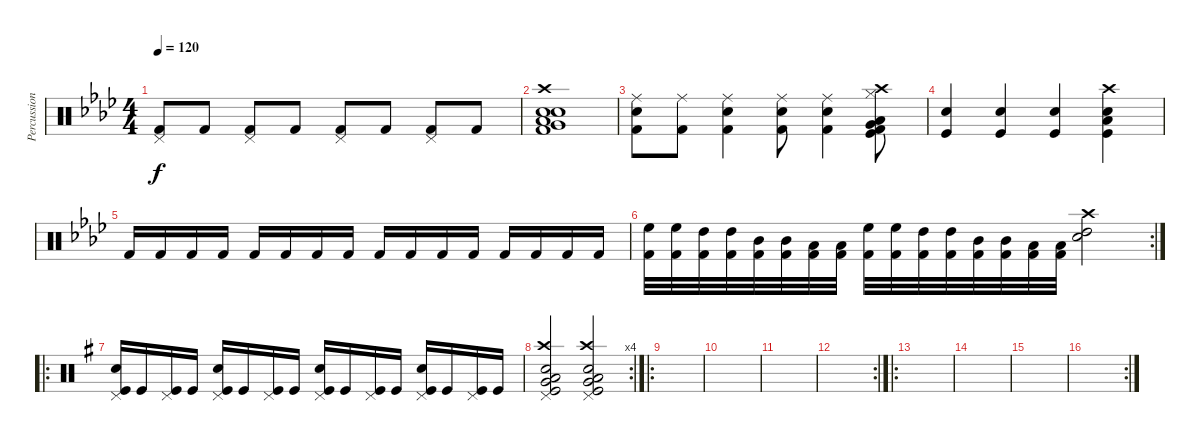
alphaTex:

\track ("Percussion" "Percussion") {instrument percussion}
\staff {score}
\articulation defaults
\ts (4 4)
\tempo 120
\clef neutral
\ks fminor
("Pedal Hi-Hat (hit)" "Kick (hit) 2").8{dy f} "Kick (hit) 2".8 ("Pedal Hi-Hat (hit)" "Kick (hit) 2").8 "Kick (hit) 2".8 ("Pedal Hi-Hat (hit)" "Kick (hit) 2").8 "Kick (hit) 2".8 ("Pedal Hi-Hat (hit)" "Kick (hit) 2").8 "Kick (hit) 2".8 |
("Electric Snare (hit)" "Electric Snare (hit)" "Crash high (hit)" "Kick (hit) 2" "Low Floor Tom (hit)" "Very Low Tom (hit)").1 |
("Kick (hit) 2" "Snare (hit) 2" "Ride (middle)").8 ("Kick (hit) 2" "Ride (middle)").8 ("Kick (hit) 2" "Snare (hit) 2" "Ride (middle)").4 ("Kick (hit) 2" "Snare (hit) 2" "Ride (middle)").8 ("Kick (hit) 2" "Snare (hit) 2" "Ride (middle)").4 ("Very Low Tom (hit)" "Crash high (hit)" "Kick (hit)" "Kick (hit) 2" "Low Floor Tom (hit)" "Hi-Hat (closed)").8 |
("Snare (hit) 2" "Kick (hit)").4 ("Snare (hit) 2" "Kick (hit)").4 ("Snare (hit) 2" "Kick (hit)").4 ("Crash high (hit)" "Low Floor Tom (hit)" "Snare (hit) 2" "Kick (hit)").4 |
"Kick (hit) 2".16 "Kick (hit) 2".16 "Kick (hit) 2".16 "Kick (hit) 2".16 "Kick (hit) 2".16 "Kick (hit) 2".16 "Kick (hit) 2".16 "Kick (hit) 2".16 "Kick (hit) 2".16 "Kick (hit) 2".16 "Kick (hit) 2".16 "Kick (hit) 2".16 "Kick (hit) 2".16 "Kick (hit) 2".16 "Kick (hit) 2".16 "Kick (hit) 2".16 |
\rc 2
("High Floor Tom (hit)" "Kick (hit) 2").32 ("High Floor Tom (hit)" "Kick (hit) 2").32 ("High Tom (hit)" "Kick (hit) 2").32 ("High Tom (hit)" "Kick (hit) 2").32 ("Mid Tom (hit)" "Kick (hit) 2").32 ("Mid Tom (hit)" "Kick (hit) 2").32 ("Low Floor Tom (hit)" "Kick (hit) 2").32 ("Low Floor Tom (hit)" "Kick (hit) 2").32 ("High Floor Tom (hit)" "Kick (hit) 2").32 ("High Floor Tom (hit)" "Kick (hit) 2").32 ("High Tom (hit)" "Kick (hit) 2").32 ("High Tom (hit)" "Kick (hit) 2").32 ("Mid Tom (hit)" "Kick (hit) 2").32 ("Mid Tom (hit)" "Kick (hit) 2").32 ("Low Floor Tom (hit)" "Kick (hit) 2").32 ("Low Floor Tom (hit)" "Kick (hit) 2").32 ("Snare (hit) 2" "High Tom (hit)" "Crash high (hit)").2 |
\ro
\ks eminor
("Pedal Hi-Hat (hit)" "Snare (hit) 2" "Kick (hit)").16 "Kick (hit)".16 ("Pedal Hi-Hat (hit)" "Kick (hit)").16 "Kick (hit)".16 ("Pedal Hi-Hat (hit)" "Snare (hit) 2" "Kick (hit)").16 "Kick (hit)".16 ("Pedal Hi-Hat (hit)" "Kick (hit)").16 "Kick (hit)".16 ("Pedal Hi-Hat (hit)" "Snare (hit) 2" "Kick (hit)").16 "Kick (hit)".16 ("Pedal Hi-Hat (hit)" "Kick (hit)").16 "Kick (hit)".16 ("Pedal Hi-Hat (hit)" "Snare (hit) 2" "Kick (hit)").16 "Kick (hit)".16 ("Pedal Hi-Hat (hit)" "Kick (hit)").16 "Kick (hit)".16 |
\rc 4
("Pedal Hi-Hat (hit)" "Crash high (hit)" "Snare (hit) 2" "Low Floor Tom (hit)" "Very Low Tom (hit)" "Kick (hit)").2 ("Pedal Hi-Hat (hit)" "Crash high (hit)" "Snare (hit) 2" "Low Floor Tom (hit)" "Very Low Tom (hit)" "Kick (hit)").2 |
\ro
|
|
|
\rc 2
|
\ro
|
|
|
\rc 2
